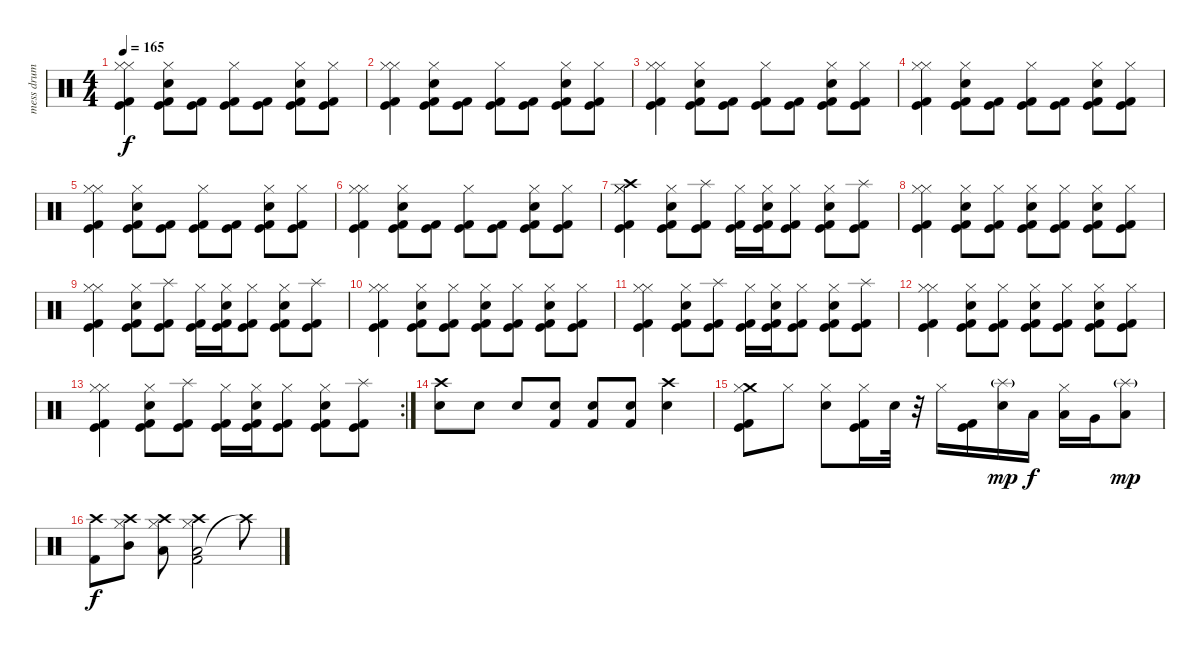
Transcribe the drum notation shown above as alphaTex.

\track ("mess drum" "mess drum") {instrument percussion}
\staff {score}
\articulation defaults
\ts (4 4)
\tempo 165
\clef neutral
\ks c
("Hi-Hat (closed)" "Kick (hit)" "Kick (hit) 2" "Hi-Hat (closed)").4{dy f} ("Kick (hit)" "Kick (hit) 2" "Hi-Hat (closed)" "Electric Snare (hit)").8 ("Kick (hit)" "Kick (hit) 2").8 ("Kick (hit)" "Kick (hit) 2" "Hi-Hat (closed)").8 ("Kick (hit)" "Kick (hit) 2").8 ("Kick (hit)" "Kick (hit) 2" "Hi-Hat (closed)" "Electric Snare (hit)").8 ("Kick (hit)" "Kick (hit) 2" "Hi-Hat (closed)").8 |
("Hi-Hat (closed)" "Kick (hit)" "Kick (hit) 2" "Hi-Hat (closed)").4 ("Kick (hit)" "Kick (hit) 2" "Hi-Hat (closed)" "Electric Snare (hit)").8 ("Kick (hit)" "Kick (hit) 2").8 ("Kick (hit)" "Kick (hit) 2" "Hi-Hat (closed)").8 ("Kick (hit)" "Kick (hit) 2").8 ("Kick (hit)" "Kick (hit) 2" "Hi-Hat (closed)" "Electric Snare (hit)").8 ("Kick (hit)" "Kick (hit) 2" "Hi-Hat (closed)").8 |
("Hi-Hat (closed)" "Kick (hit)" "Kick (hit) 2" "Hi-Hat (closed)").4 ("Kick (hit)" "Kick (hit) 2" "Hi-Hat (closed)" "Electric Snare (hit)").8 ("Kick (hit)" "Kick (hit) 2").8 ("Kick (hit)" "Kick (hit) 2" "Hi-Hat (closed)").8 ("Kick (hit)" "Kick (hit) 2").8 ("Kick (hit)" "Kick (hit) 2" "Hi-Hat (closed)" "Electric Snare (hit)").8 ("Kick (hit)" "Kick (hit) 2" "Hi-Hat (closed)").8 |
("Hi-Hat (closed)" "Kick (hit)" "Kick (hit) 2" "Hi-Hat (closed)").4 ("Kick (hit)" "Kick (hit) 2" "Hi-Hat (closed)" "Electric Snare (hit)").8 ("Kick (hit)" "Kick (hit) 2").8 ("Kick (hit)" "Kick (hit) 2" "Hi-Hat (closed)").8 ("Kick (hit)" "Kick (hit) 2").8 ("Kick (hit)" "Kick (hit) 2" "Hi-Hat (closed)" "Electric Snare (hit)").8 ("Kick (hit)" "Kick (hit) 2" "Hi-Hat (closed)").8 |
("Hi-Hat (closed)" "Kick (hit)" "Kick (hit) 2" "Hi-Hat (closed)").4 ("Kick (hit)" "Kick (hit) 2" "Hi-Hat (closed)" "Electric Snare (hit)").8 ("Kick (hit)" "Kick (hit) 2").8 ("Kick (hit)" "Kick (hit) 2" "Hi-Hat (closed)").8 ("Kick (hit)" "Kick (hit) 2").8 ("Kick (hit)" "Kick (hit) 2" "Hi-Hat (closed)" "Electric Snare (hit)").8 ("Kick (hit)" "Kick (hit) 2" "Hi-Hat (closed)").8 |
("Hi-Hat (closed)" "Kick (hit)" "Kick (hit) 2" "Hi-Hat (closed)").4 ("Kick (hit)" "Kick (hit) 2" "Hi-Hat (closed)" "Electric Snare (hit)").8 ("Kick (hit)" "Kick (hit) 2").8 ("Kick (hit)" "Kick (hit) 2" "Hi-Hat (closed)").8 ("Kick (hit)" "Kick (hit) 2").8 ("Kick (hit)" "Kick (hit) 2" "Hi-Hat (closed)" "Electric Snare (hit)").8 ("Kick (hit)" "Kick (hit) 2" "Hi-Hat (closed)").8 |
("Hi-Hat (closed)" "Kick (hit)" "Kick (hit) 2" "Hi-Hat (closed)" "Crash high (hit)").4 ("Kick (hit)" "Kick (hit) 2" "Hi-Hat (closed)" "Electric Snare (hit)").8 ("Kick (hit)" "Kick (hit) 2" "Splash (hit)").8 ("Kick (hit)" "Kick (hit) 2" "Hi-Hat (closed)").16 ("Kick (hit)" "Kick (hit) 2" "Hi-Hat (closed)" "Electric Snare (hit)").16 ("Kick (hit)" "Kick (hit) 2" "Hi-Hat (closed)").8 ("Kick (hit)" "Kick (hit) 2" "Hi-Hat (closed)" "Electric Snare (hit)").8 ("Kick (hit)" "Kick (hit) 2" "Splash (hit)").8 |
("Hi-Hat (closed)" "Kick (hit)" "Kick (hit) 2" "Hi-Hat (closed)").4 ("Kick (hit)" "Kick (hit) 2" "Hi-Hat (closed)" "Electric Snare (hit)").8 ("Kick (hit)" "Kick (hit) 2" "Hi-Hat (closed)").8 ("Kick (hit)" "Kick (hit) 2" "Hi-Hat (closed)" "Electric Snare (hit)").8 ("Kick (hit)" "Kick (hit) 2" "Hi-Hat (closed)").8 ("Kick (hit)" "Kick (hit) 2" "Hi-Hat (closed)" "Electric Snare (hit)").8 ("Kick (hit)" "Kick (hit) 2" "Hi-Hat (closed)").8 |
("Hi-Hat (closed)" "Kick (hit)" "Kick (hit) 2" "Hi-Hat (closed)").4 ("Kick (hit)" "Kick (hit) 2" "Hi-Hat (closed)" "Electric Snare (hit)").8 ("Kick (hit)" "Kick (hit) 2" "Splash (hit)").8 ("Kick (hit)" "Kick (hit) 2" "Hi-Hat (closed)").16 ("Kick (hit)" "Kick (hit) 2" "Hi-Hat (closed)" "Electric Snare (hit)").16 ("Kick (hit)" "Kick (hit) 2" "Hi-Hat (closed)").8 ("Kick (hit)" "Kick (hit) 2" "Hi-Hat (closed)" "Electric Snare (hit)").8 ("Kick (hit)" "Kick (hit) 2" "Splash (hit)").8 |
("Hi-Hat (closed)" "Kick (hit)" "Kick (hit) 2" "Hi-Hat (closed)").4 ("Kick (hit)" "Kick (hit) 2" "Hi-Hat (closed)" "Electric Snare (hit)").8 ("Kick (hit)" "Kick (hit) 2" "Hi-Hat (closed)").8 ("Kick (hit)" "Kick (hit) 2" "Hi-Hat (closed)" "Electric Snare (hit)").8 ("Kick (hit)" "Kick (hit) 2" "Hi-Hat (closed)").8 ("Kick (hit)" "Kick (hit) 2" "Hi-Hat (closed)" "Electric Snare (hit)").8 ("Kick (hit)" "Kick (hit) 2" "Hi-Hat (closed)").8 |
("Hi-Hat (closed)" "Kick (hit)" "Kick (hit) 2" "Hi-Hat (closed)").4 ("Kick (hit)" "Kick (hit) 2" "Hi-Hat (closed)" "Electric Snare (hit)").8 ("Kick (hit)" "Kick (hit) 2" "Splash (hit)").8 ("Kick (hit)" "Kick (hit) 2" "Hi-Hat (closed)").16 ("Kick (hit)" "Kick (hit) 2" "Hi-Hat (closed)" "Electric Snare (hit)").16 ("Kick (hit)" "Kick (hit) 2" "Hi-Hat (closed)").8 ("Kick (hit)" "Kick (hit) 2" "Hi-Hat (closed)" "Electric Snare (hit)").8 ("Kick (hit)" "Kick (hit) 2" "Splash (hit)").8 |
("Hi-Hat (closed)" "Kick (hit)" "Kick (hit) 2" "Hi-Hat (closed)").4 ("Kick (hit)" "Kick (hit) 2" "Hi-Hat (closed)" "Electric Snare (hit)").8 ("Kick (hit)" "Kick (hit) 2" "Hi-Hat (closed)").8 ("Kick (hit)" "Kick (hit) 2" "Hi-Hat (closed)" "Electric Snare (hit)").8 ("Kick (hit)" "Kick (hit) 2" "Hi-Hat (closed)").8 ("Kick (hit)" "Kick (hit) 2" "Hi-Hat (closed)" "Electric Snare (hit)").8 ("Kick (hit)" "Kick (hit) 2" "Hi-Hat (closed)").8 |
\rc 2
("Hi-Hat (closed)" "Kick (hit)" "Kick (hit) 2" "Hi-Hat (closed)").4 ("Kick (hit)" "Kick (hit) 2" "Hi-Hat (closed)" "Electric Snare (hit)").8 ("Kick (hit)" "Kick (hit) 2" "Splash (hit)").8 ("Kick (hit)" "Kick (hit) 2" "Hi-Hat (closed)").16 ("Kick (hit)" "Kick (hit) 2" "Hi-Hat (closed)" "Electric Snare (hit)").16 ("Kick (hit)" "Kick (hit) 2" "Hi-Hat (closed)").8 ("Kick (hit)" "Kick (hit) 2" "Hi-Hat (closed)" "Electric Snare (hit)").8 ("Kick (hit)" "Kick (hit) 2" "Splash (hit)").8 |
("Crash high (hit)" "Electric Snare (hit)").8 "Electric Snare (hit)".8 "Electric Snare (hit)".8 ("Electric Snare (hit)" "Kick (hit) 2").8 ("Electric Snare (hit)" "Kick (hit) 2").8 ("Electric Snare (hit)" "Kick (hit) 2").8 ("Electric Snare (hit)" "Crash high (hit)").4 |
("Crash medium (hit)" "Kick (hit)" "Kick (hit) 2" "Hi-Hat (closed)").8 "Hi-Hat (closed)".8 ("Electric Snare (hit)" "Hi-Hat (closed)").8 ("Kick (hit)" "Kick (hit) 2" "Hi-Hat (closed)").16 "Electric Snare (hit)".32 r.32 "Hi-Hat (closed)".16 ("Kick (hit) 2" "Kick (hit)").16 ("Electric Snare (hit)" "Splash (hit)"{g}).16{dy mp} "Low Tom (hit)".16{dy f} ("Low Tom (hit)" "Hi-Hat (closed)").16 "Very Low Tom (hit)".16 ("Low Floor Tom (hit)" "Splash (hit)"{g}).8{dy mp} |
("Kick (hit) 2" "Crash high (hit)").8{dy f} ("Mid Tom (hit)" "Crash high (hit)" "Hi-Hat (closed)").8 ("Low Tom (hit)" "Crash high (hit)" "Hi-Hat (closed)").8 ("Low Floor Tom (hit)" "Kick (hit) 2" "Hi-Hat (closed)" "Crash high (hit)").2 "Crash high (hit)"{t}.8
